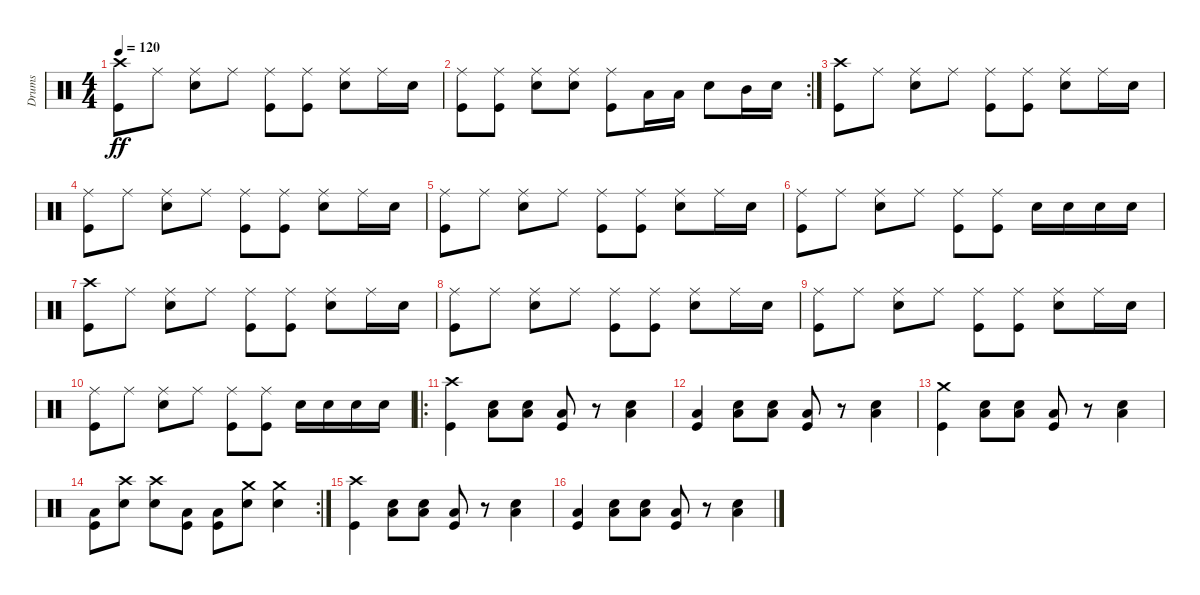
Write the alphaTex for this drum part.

\track ("Drums" "Drums") {instrument percussion}
\staff {score}
\articulation defaults
\ts (4 4)
\tempo 120
\clef neutral
\ks c
("Crash high (hit)" "Kick (hit)").8{dy ff} "Ride (middle)".8 ("Ride (middle)" "Snare (hit) 2").8 "Ride (middle)".8 ("Ride (middle)" "Kick (hit)").8 ("Ride (middle)" "Kick (hit)").8 ("Ride (middle)" "Snare (hit) 2").8 "Ride (middle)".16 "Snare (hit) 2".16 |
\rc 2
("Ride (middle)" "Kick (hit)").8 ("Ride (middle)" "Kick (hit)").8 ("Ride (middle)" "Snare (hit) 2").8 ("Ride (middle)" "Snare (hit) 2").8 ("Ride (middle)" "Kick (hit)").8 "Low Tom (hit)".16 "Low Tom (hit)".16 "Snare (hit) 2".8 "Mid Tom (hit)".16 "Snare (hit) 2".16 |
("Crash high (hit)" "Kick (hit)").8 "Ride (middle)".8 ("Ride (middle)" "Snare (hit) 2").8 "Ride (middle)".8 ("Ride (middle)" "Kick (hit)").8 ("Ride (middle)" "Kick (hit)").8 ("Ride (middle)" "Snare (hit) 2").8 "Ride (middle)".16 "Snare (hit) 2".16 |
("Ride (middle)" "Kick (hit)").8 "Ride (middle)".8 ("Ride (middle)" "Snare (hit) 2").8 "Ride (middle)".8 ("Ride (middle)" "Kick (hit)").8 ("Ride (middle)" "Kick (hit)").8 ("Ride (middle)" "Snare (hit) 2").8 "Ride (middle)".16 "Snare (hit) 2".16 |
("Ride (middle)" "Kick (hit)").8 "Ride (middle)".8 ("Ride (middle)" "Snare (hit) 2").8 "Ride (middle)".8 ("Ride (middle)" "Kick (hit)").8 ("Ride (middle)" "Kick (hit)").8 ("Ride (middle)" "Snare (hit) 2").8 "Ride (middle)".16 "Snare (hit) 2".16 |
("Ride (middle)" "Kick (hit)").8 "Ride (middle)".8 ("Ride (middle)" "Snare (hit) 2").8 "Ride (middle)".8 ("Ride (middle)" "Kick (hit)").8 ("Ride (middle)" "Kick (hit)").8 "Snare (hit) 2".16 "Snare (hit) 2".16 "Snare (hit) 2".16 "Snare (hit) 2".16 |
("Crash high (hit)" "Kick (hit)").8 "Ride (middle)".8 ("Ride (middle)" "Snare (hit) 2").8 "Ride (middle)".8 ("Ride (middle)" "Kick (hit)").8 ("Ride (middle)" "Kick (hit)").8 ("Ride (middle)" "Snare (hit) 2").8 "Ride (middle)".16 "Snare (hit) 2".16 |
("Ride (middle)" "Kick (hit)").8 "Ride (middle)".8 ("Ride (middle)" "Snare (hit) 2").8 "Ride (middle)".8 ("Ride (middle)" "Kick (hit)").8 ("Ride (middle)" "Kick (hit)").8 ("Ride (middle)" "Snare (hit) 2").8 "Ride (middle)".16 "Snare (hit) 2".16 |
("Ride (middle)" "Kick (hit)").8 "Ride (middle)".8 ("Ride (middle)" "Snare (hit) 2").8 "Ride (middle)".8 ("Ride (middle)" "Kick (hit)").8 ("Ride (middle)" "Kick (hit)").8 ("Ride (middle)" "Snare (hit) 2").8 "Ride (middle)".16 "Snare (hit) 2".16 |
("Ride (middle)" "Kick (hit)").8 "Ride (middle)".8 ("Ride (middle)" "Snare (hit) 2").8 "Ride (middle)".8 ("Ride (middle)" "Kick (hit)").8 ("Ride (middle)" "Kick (hit)").8 "Snare (hit) 2".16 "Snare (hit) 2".16 "Snare (hit) 2".16 "Snare (hit) 2".16 |
\ro
("Crash high (hit)" "Kick (hit)").4 ("Low Floor Tom (hit)" "Snare (hit) 2").8 ("Low Floor Tom (hit)" "Snare (hit) 2").8 ("Low Floor Tom (hit)" "Kick (hit)").8 r.8 ("Low Floor Tom (hit)" "Snare (hit) 2").4 |
("Low Floor Tom (hit)" "Kick (hit)").4 ("Low Floor Tom (hit)" "Snare (hit) 2").8 ("Low Floor Tom (hit)" "Snare (hit) 2").8 ("Low Floor Tom (hit)" "Kick (hit)").8 r.8 ("Low Floor Tom (hit)" "Snare (hit) 2").4 |
("Crash medium (hit)" "Kick (hit)").4 ("Low Floor Tom (hit)" "Snare (hit) 2").8 ("Low Floor Tom (hit)" "Snare (hit) 2").8 ("Low Floor Tom (hit)" "Kick (hit)").8 r.8 ("Low Floor Tom (hit)" "Snare (hit) 2").4 |
\rc 2
("Low Floor Tom (hit)" "Kick (hit)").8 ("Crash high (hit)" "Snare (hit) 2").8 ("Crash high (hit)" "Snare (hit) 2").8 ("Low Floor Tom (hit)" "Kick (hit)").8 ("Low Floor Tom (hit)" "Kick (hit)").8 ("Crash medium (hit)" "Snare (hit) 2").8 ("Crash medium (hit)" "Snare (hit) 2").4 |
("Crash high (hit)" "Kick (hit)").4 ("Low Floor Tom (hit)" "Snare (hit) 2").8 ("Low Floor Tom (hit)" "Snare (hit) 2").8 ("Low Floor Tom (hit)" "Kick (hit)").8 r.8 ("Low Floor Tom (hit)" "Snare (hit) 2").4 |
("Low Floor Tom (hit)" "Kick (hit)").4 ("Low Floor Tom (hit)" "Snare (hit) 2").8 ("Low Floor Tom (hit)" "Snare (hit) 2").8 ("Low Floor Tom (hit)" "Kick (hit)").8 r.8 ("Low Floor Tom (hit)" "Snare (hit) 2").4
